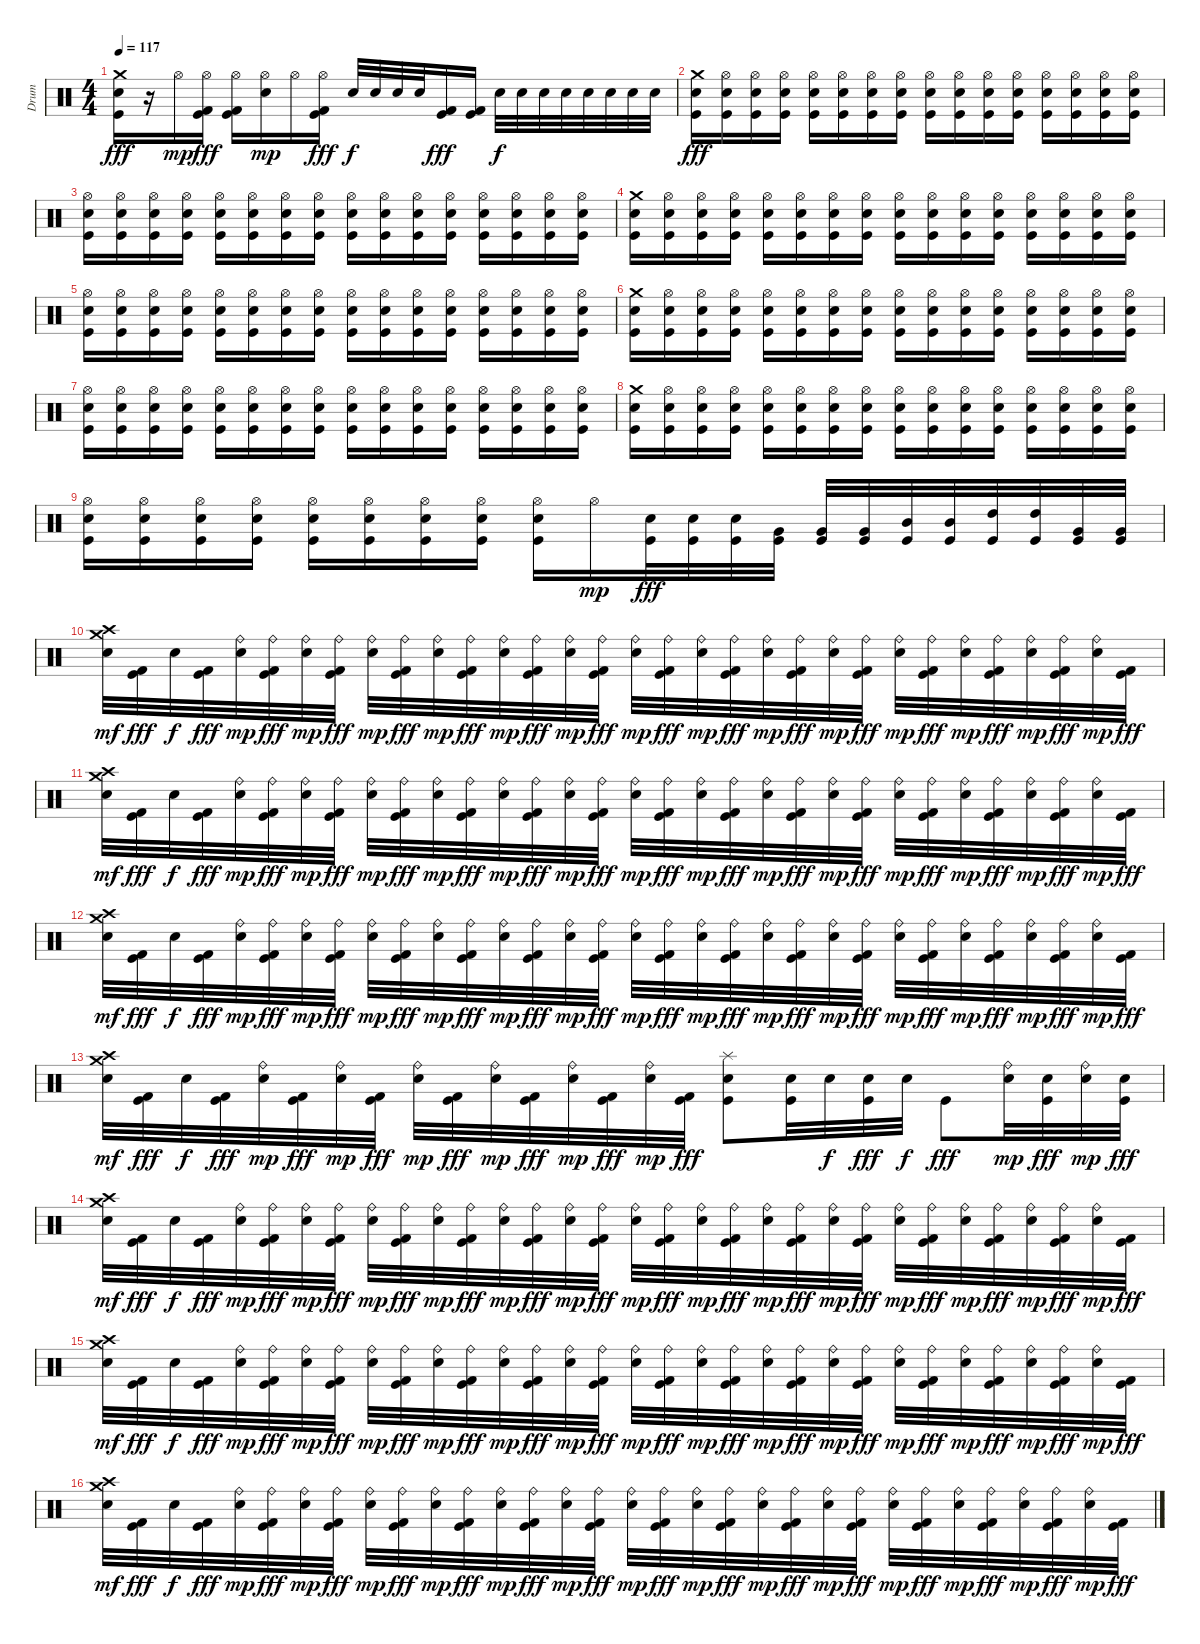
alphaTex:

\track ("Drum" "Drum") {instrument percussion}
\staff {score}
\articulation defaults
\ts (4 4)
\tempo 117
\clef neutral
\ks c
("Crash medium (hit)" "Electric Snare (hit)" "Kick (hit)").16{dy fff} r.16 "Hi-Hat (open)".16{dy mp} ("Hi-Hat (open)" "Kick (hit) 2" "Kick (hit)").16{dy fff} ("Hi-Hat (open)" "Kick (hit) 2" "Kick (hit)").16 ("Hi-Hat (open)" "Electric Snare (hit)").16{dy mp} "Hi-Hat (open)".16 ("Hi-Hat (open)" "Kick (hit) 2" "Kick (hit)").16{dy fff} "Electric Snare (hit)".32{dy f} "Electric Snare (hit)".32 "Electric Snare (hit)".32 "Electric Snare (hit)".32 ("Kick (hit) 2" "Kick (hit)").16{dy fff} ("Kick (hit) 2" "Kick (hit)").16 "Electric Snare (hit)".32{dy f} "Electric Snare (hit)".32 "Electric Snare (hit)".32 "Electric Snare (hit)".32 "Electric Snare (hit)".32 "Electric Snare (hit)".32 "Electric Snare (hit)".32 "Electric Snare (hit)".32 |
("Crash medium (hit)" "Electric Snare (hit)" "Kick (hit)").16{dy fff} ("Hi-Hat (open)" "Electric Snare (hit)" "Kick (hit)").16 ("Hi-Hat (open)" "Electric Snare (hit)" "Kick (hit)").16 ("Hi-Hat (open)" "Electric Snare (hit)" "Kick (hit)").16 ("Hi-Hat (open)" "Electric Snare (hit)" "Kick (hit)").16 ("Hi-Hat (open)" "Electric Snare (hit)" "Kick (hit)").16 ("Hi-Hat (open)" "Electric Snare (hit)" "Kick (hit)").16 ("Hi-Hat (open)" "Electric Snare (hit)" "Kick (hit)").16 ("Hi-Hat (open)" "Electric Snare (hit)" "Kick (hit)").16 ("Hi-Hat (open)" "Electric Snare (hit)" "Kick (hit)").16 ("Hi-Hat (open)" "Electric Snare (hit)" "Kick (hit)").16 ("Hi-Hat (open)" "Electric Snare (hit)" "Kick (hit)").16 ("Hi-Hat (open)" "Electric Snare (hit)" "Kick (hit)").16 ("Hi-Hat (open)" "Electric Snare (hit)" "Kick (hit)").16 ("Hi-Hat (open)" "Electric Snare (hit)" "Kick (hit)").16 ("Hi-Hat (open)" "Electric Snare (hit)" "Kick (hit)").16 |
("Hi-Hat (open)" "Electric Snare (hit)" "Kick (hit)").16 ("Hi-Hat (open)" "Electric Snare (hit)" "Kick (hit)").16 ("Hi-Hat (open)" "Electric Snare (hit)" "Kick (hit)").16 ("Hi-Hat (open)" "Electric Snare (hit)" "Kick (hit)").16 ("Hi-Hat (open)" "Electric Snare (hit)" "Kick (hit)").16 ("Hi-Hat (open)" "Electric Snare (hit)" "Kick (hit)").16 ("Hi-Hat (open)" "Electric Snare (hit)" "Kick (hit)").16 ("Hi-Hat (open)" "Electric Snare (hit)" "Kick (hit)").16 ("Hi-Hat (open)" "Electric Snare (hit)" "Kick (hit)").16 ("Hi-Hat (open)" "Electric Snare (hit)" "Kick (hit)").16 ("Hi-Hat (open)" "Electric Snare (hit)" "Kick (hit)").16 ("Hi-Hat (open)" "Electric Snare (hit)" "Kick (hit)").16 ("Hi-Hat (open)" "Electric Snare (hit)" "Kick (hit)").16 ("Hi-Hat (open)" "Electric Snare (hit)" "Kick (hit)").16 ("Hi-Hat (open)" "Electric Snare (hit)" "Kick (hit)").16 ("Hi-Hat (open)" "Electric Snare (hit)" "Kick (hit)").16 |
("Crash medium (hit)" "Electric Snare (hit)" "Kick (hit)").16 ("Hi-Hat (open)" "Electric Snare (hit)" "Kick (hit)").16 ("Hi-Hat (open)" "Electric Snare (hit)" "Kick (hit)").16 ("Hi-Hat (open)" "Electric Snare (hit)" "Kick (hit)").16 ("Hi-Hat (open)" "Electric Snare (hit)" "Kick (hit)").16 ("Hi-Hat (open)" "Electric Snare (hit)" "Kick (hit)").16 ("Hi-Hat (open)" "Electric Snare (hit)" "Kick (hit)").16 ("Hi-Hat (open)" "Electric Snare (hit)" "Kick (hit)").16 ("Hi-Hat (open)" "Electric Snare (hit)" "Kick (hit)").16 ("Hi-Hat (open)" "Electric Snare (hit)" "Kick (hit)").16 ("Hi-Hat (open)" "Electric Snare (hit)" "Kick (hit)").16 ("Hi-Hat (open)" "Electric Snare (hit)" "Kick (hit)").16 ("Hi-Hat (open)" "Electric Snare (hit)" "Kick (hit)").16 ("Hi-Hat (open)" "Electric Snare (hit)" "Kick (hit)").16 ("Hi-Hat (open)" "Electric Snare (hit)" "Kick (hit)").16 ("Hi-Hat (open)" "Electric Snare (hit)" "Kick (hit)").16 |
("Hi-Hat (open)" "Electric Snare (hit)" "Kick (hit)").16 ("Hi-Hat (open)" "Electric Snare (hit)" "Kick (hit)").16 ("Hi-Hat (open)" "Electric Snare (hit)" "Kick (hit)").16 ("Hi-Hat (open)" "Electric Snare (hit)" "Kick (hit)").16 ("Hi-Hat (open)" "Electric Snare (hit)" "Kick (hit)").16 ("Hi-Hat (open)" "Electric Snare (hit)" "Kick (hit)").16 ("Hi-Hat (open)" "Electric Snare (hit)" "Kick (hit)").16 ("Hi-Hat (open)" "Electric Snare (hit)" "Kick (hit)").16 ("Hi-Hat (open)" "Electric Snare (hit)" "Kick (hit)").16 ("Hi-Hat (open)" "Electric Snare (hit)" "Kick (hit)").16 ("Hi-Hat (open)" "Electric Snare (hit)" "Kick (hit)").16 ("Hi-Hat (open)" "Electric Snare (hit)" "Kick (hit)").16 ("Hi-Hat (open)" "Electric Snare (hit)" "Kick (hit)").16 ("Hi-Hat (open)" "Electric Snare (hit)" "Kick (hit)").16 ("Hi-Hat (open)" "Electric Snare (hit)" "Kick (hit)").16 ("Hi-Hat (open)" "Electric Snare (hit)" "Kick (hit)").16 |
("Crash medium (hit)" "Electric Snare (hit)" "Kick (hit)").16 ("Hi-Hat (open)" "Electric Snare (hit)" "Kick (hit)").16 ("Hi-Hat (open)" "Electric Snare (hit)" "Kick (hit)").16 ("Hi-Hat (open)" "Electric Snare (hit)" "Kick (hit)").16 ("Hi-Hat (open)" "Electric Snare (hit)" "Kick (hit)").16 ("Hi-Hat (open)" "Electric Snare (hit)" "Kick (hit)").16 ("Hi-Hat (open)" "Electric Snare (hit)" "Kick (hit)").16 ("Hi-Hat (open)" "Electric Snare (hit)" "Kick (hit)").16 ("Hi-Hat (open)" "Electric Snare (hit)" "Kick (hit)").16 ("Hi-Hat (open)" "Electric Snare (hit)" "Kick (hit)").16 ("Hi-Hat (open)" "Electric Snare (hit)" "Kick (hit)").16 ("Hi-Hat (open)" "Electric Snare (hit)" "Kick (hit)").16 ("Hi-Hat (open)" "Electric Snare (hit)" "Kick (hit)").16 ("Hi-Hat (open)" "Electric Snare (hit)" "Kick (hit)").16 ("Hi-Hat (open)" "Electric Snare (hit)" "Kick (hit)").16 ("Hi-Hat (open)" "Electric Snare (hit)" "Kick (hit)").16 |
("Hi-Hat (open)" "Electric Snare (hit)" "Kick (hit)").16 ("Hi-Hat (open)" "Electric Snare (hit)" "Kick (hit)").16 ("Hi-Hat (open)" "Electric Snare (hit)" "Kick (hit)").16 ("Hi-Hat (open)" "Electric Snare (hit)" "Kick (hit)").16 ("Hi-Hat (open)" "Electric Snare (hit)" "Kick (hit)").16 ("Hi-Hat (open)" "Electric Snare (hit)" "Kick (hit)").16 ("Hi-Hat (open)" "Electric Snare (hit)" "Kick (hit)").16 ("Hi-Hat (open)" "Electric Snare (hit)" "Kick (hit)").16 ("Hi-Hat (open)" "Electric Snare (hit)" "Kick (hit)").16 ("Hi-Hat (open)" "Electric Snare (hit)" "Kick (hit)").16 ("Hi-Hat (open)" "Electric Snare (hit)" "Kick (hit)").16 ("Hi-Hat (open)" "Electric Snare (hit)" "Kick (hit)").16 ("Hi-Hat (open)" "Electric Snare (hit)" "Kick (hit)").16 ("Hi-Hat (open)" "Electric Snare (hit)" "Kick (hit)").16 ("Hi-Hat (open)" "Electric Snare (hit)" "Kick (hit)").16 ("Hi-Hat (open)" "Electric Snare (hit)" "Kick (hit)").16 |
("Crash medium (hit)" "Electric Snare (hit)" "Kick (hit)").16 ("Hi-Hat (open)" "Electric Snare (hit)" "Kick (hit)").16 ("Hi-Hat (open)" "Electric Snare (hit)" "Kick (hit)").16 ("Hi-Hat (open)" "Electric Snare (hit)" "Kick (hit)").16 ("Hi-Hat (open)" "Electric Snare (hit)" "Kick (hit)").16 ("Hi-Hat (open)" "Electric Snare (hit)" "Kick (hit)").16 ("Hi-Hat (open)" "Electric Snare (hit)" "Kick (hit)").16 ("Hi-Hat (open)" "Electric Snare (hit)" "Kick (hit)").16 ("Hi-Hat (open)" "Electric Snare (hit)" "Kick (hit)").16 ("Hi-Hat (open)" "Electric Snare (hit)" "Kick (hit)").16 ("Hi-Hat (open)" "Electric Snare (hit)" "Kick (hit)").16 ("Hi-Hat (open)" "Electric Snare (hit)" "Kick (hit)").16 ("Hi-Hat (open)" "Electric Snare (hit)" "Kick (hit)").16 ("Hi-Hat (open)" "Electric Snare (hit)" "Kick (hit)").16 ("Hi-Hat (open)" "Electric Snare (hit)" "Kick (hit)").16 ("Hi-Hat (open)" "Electric Snare (hit)" "Kick (hit)").16 |
("Hi-Hat (open)" "Electric Snare (hit)" "Kick (hit)").16 ("Hi-Hat (open)" "Electric Snare (hit)" "Kick (hit)").16 ("Hi-Hat (open)" "Electric Snare (hit)" "Kick (hit)").16 ("Hi-Hat (open)" "Electric Snare (hit)" "Kick (hit)").16 ("Hi-Hat (open)" "Electric Snare (hit)" "Kick (hit)").16 ("Hi-Hat (open)" "Electric Snare (hit)" "Kick (hit)").16 ("Hi-Hat (open)" "Electric Snare (hit)" "Kick (hit)").16 ("Hi-Hat (open)" "Electric Snare (hit)" "Kick (hit)").16 ("Hi-Hat (open)" "Electric Snare (hit)" "Kick (hit)").16 "Hi-Hat (open)".16{dy mp} ("Electric Snare (hit)" "Kick (hit)").32{dy fff} ("Electric Snare (hit)" "Kick (hit)").32 ("Electric Snare (hit)" "Kick (hit)").32 ("Very Low Tom (hit)" "Kick (hit)").32 ("Very Low Tom (hit)" "Kick (hit)").32 ("Very Low Tom (hit)" "Kick (hit)").32 ("Mid Tom (hit)" "Kick (hit)").32 ("Mid Tom (hit)" "Kick (hit)").32 ("High Tom (hit)" "Kick (hit)").32 ("High Tom (hit)" "Kick (hit)").32 ("Very Low Tom (hit)" "Kick (hit)").32 ("Very Low Tom (hit)" "Kick (hit)").32 |
("Crash medium (hit)" "Crash high (hit)" "Electric Snare (hit)").32{dy mf} ("Kick (hit) 2" "Kick (hit)").32{dy fff} "Electric Snare (hit)".32{dy f} ("Kick (hit) 2" "Kick (hit)").32{dy fff} ("Ride (bell)" "Electric Snare (hit)").32{dy mp} ("Ride (bell)" "Kick (hit) 2" "Kick (hit)").32{dy fff} ("Ride (bell)" "Electric Snare (hit)").32{dy mp} ("Ride (bell)" "Kick (hit) 2" "Kick (hit)").32{dy fff} ("Ride (bell)" "Electric Snare (hit)").32{dy mp} ("Ride (bell)" "Kick (hit) 2" "Kick (hit)").32{dy fff} ("Ride (bell)" "Electric Snare (hit)").32{dy mp} ("Ride (bell)" "Kick (hit) 2" "Kick (hit)").32{dy fff} ("Ride (bell)" "Electric Snare (hit)").32{dy mp} ("Ride (bell)" "Kick (hit) 2" "Kick (hit)").32{dy fff} ("Ride (bell)" "Electric Snare (hit)").32{dy mp} ("Ride (bell)" "Kick (hit) 2" "Kick (hit)").32{dy fff} ("Ride (bell)" "Electric Snare (hit)").32{dy mp} ("Ride (bell)" "Kick (hit) 2" "Kick (hit)").32{dy fff} ("Ride (bell)" "Electric Snare (hit)").32{dy mp} ("Ride (bell)" "Kick (hit) 2" "Kick (hit)").32{dy fff} ("Ride (bell)" "Electric Snare (hit)").32{dy mp} ("Ride (bell)" "Kick (hit) 2" "Kick (hit)").32{dy fff} ("Ride (bell)" "Electric Snare (hit)").32{dy mp} ("Ride (bell)" "Kick (hit) 2" "Kick (hit)").32{dy fff} ("Ride (bell)" "Electric Snare (hit)").32{dy mp} ("Ride (bell)" "Kick (hit) 2" "Kick (hit)").32{dy fff} ("Ride (bell)" "Electric Snare (hit)").32{dy mp} ("Ride (bell)" "Kick (hit) 2" "Kick (hit)").32{dy fff} ("Ride (bell)" "Electric Snare (hit)").32{dy mp} ("Ride (bell)" "Kick (hit) 2" "Kick (hit)").32{dy fff} ("Ride (bell)" "Electric Snare (hit)").32{dy mp} ("Kick (hit) 2" "Kick (hit)").32{dy fff} |
("Crash medium (hit)" "Crash high (hit)" "Electric Snare (hit)").32{dy mf} ("Kick (hit) 2" "Kick (hit)").32{dy fff} "Electric Snare (hit)".32{dy f} ("Kick (hit) 2" "Kick (hit)").32{dy fff} ("Ride (bell)" "Electric Snare (hit)").32{dy mp} ("Ride (bell)" "Kick (hit) 2" "Kick (hit)").32{dy fff} ("Ride (bell)" "Electric Snare (hit)").32{dy mp} ("Ride (bell)" "Kick (hit) 2" "Kick (hit)").32{dy fff} ("Ride (bell)" "Electric Snare (hit)").32{dy mp} ("Ride (bell)" "Kick (hit) 2" "Kick (hit)").32{dy fff} ("Ride (bell)" "Electric Snare (hit)").32{dy mp} ("Ride (bell)" "Kick (hit) 2" "Kick (hit)").32{dy fff} ("Ride (bell)" "Electric Snare (hit)").32{dy mp} ("Ride (bell)" "Kick (hit) 2" "Kick (hit)").32{dy fff} ("Ride (bell)" "Electric Snare (hit)").32{dy mp} ("Ride (bell)" "Kick (hit) 2" "Kick (hit)").32{dy fff} ("Ride (bell)" "Electric Snare (hit)").32{dy mp} ("Ride (bell)" "Kick (hit) 2" "Kick (hit)").32{dy fff} ("Ride (bell)" "Electric Snare (hit)").32{dy mp} ("Ride (bell)" "Kick (hit) 2" "Kick (hit)").32{dy fff} ("Ride (bell)" "Electric Snare (hit)").32{dy mp} ("Ride (bell)" "Kick (hit) 2" "Kick (hit)").32{dy fff} ("Ride (bell)" "Electric Snare (hit)").32{dy mp} ("Ride (bell)" "Kick (hit) 2" "Kick (hit)").32{dy fff} ("Ride (bell)" "Electric Snare (hit)").32{dy mp} ("Ride (bell)" "Kick (hit) 2" "Kick (hit)").32{dy fff} ("Ride (bell)" "Electric Snare (hit)").32{dy mp} ("Ride (bell)" "Kick (hit) 2" "Kick (hit)").32{dy fff} ("Ride (bell)" "Electric Snare (hit)").32{dy mp} ("Ride (bell)" "Kick (hit) 2" "Kick (hit)").32{dy fff} ("Ride (bell)" "Electric Snare (hit)").32{dy mp} ("Kick (hit) 2" "Kick (hit)").32{dy fff} |
("Crash medium (hit)" "Crash high (hit)" "Electric Snare (hit)").32{dy mf} ("Kick (hit) 2" "Kick (hit)").32{dy fff} "Electric Snare (hit)".32{dy f} ("Kick (hit) 2" "Kick (hit)").32{dy fff} ("Ride (bell)" "Electric Snare (hit)").32{dy mp} ("Ride (bell)" "Kick (hit) 2" "Kick (hit)").32{dy fff} ("Ride (bell)" "Electric Snare (hit)").32{dy mp} ("Ride (bell)" "Kick (hit) 2" "Kick (hit)").32{dy fff} ("Ride (bell)" "Electric Snare (hit)").32{dy mp} ("Ride (bell)" "Kick (hit) 2" "Kick (hit)").32{dy fff} ("Ride (bell)" "Electric Snare (hit)").32{dy mp} ("Ride (bell)" "Kick (hit) 2" "Kick (hit)").32{dy fff} ("Ride (bell)" "Electric Snare (hit)").32{dy mp} ("Ride (bell)" "Kick (hit) 2" "Kick (hit)").32{dy fff} ("Ride (bell)" "Electric Snare (hit)").32{dy mp} ("Ride (bell)" "Kick (hit) 2" "Kick (hit)").32{dy fff} ("Ride (bell)" "Electric Snare (hit)").32{dy mp} ("Ride (bell)" "Kick (hit) 2" "Kick (hit)").32{dy fff} ("Ride (bell)" "Electric Snare (hit)").32{dy mp} ("Ride (bell)" "Kick (hit) 2" "Kick (hit)").32{dy fff} ("Ride (bell)" "Electric Snare (hit)").32{dy mp} ("Ride (bell)" "Kick (hit) 2" "Kick (hit)").32{dy fff} ("Ride (bell)" "Electric Snare (hit)").32{dy mp} ("Ride (bell)" "Kick (hit) 2" "Kick (hit)").32{dy fff} ("Ride (bell)" "Electric Snare (hit)").32{dy mp} ("Ride (bell)" "Kick (hit) 2" "Kick (hit)").32{dy fff} ("Ride (bell)" "Electric Snare (hit)").32{dy mp} ("Ride (bell)" "Kick (hit) 2" "Kick (hit)").32{dy fff} ("Ride (bell)" "Electric Snare (hit)").32{dy mp} ("Ride (bell)" "Kick (hit) 2" "Kick (hit)").32{dy fff} ("Ride (bell)" "Electric Snare (hit)").32{dy mp} ("Kick (hit) 2" "Kick (hit)").32{dy fff} |
("Crash medium (hit)" "Crash high (hit)" "Electric Snare (hit)").32{dy mf} ("Kick (hit) 2" "Kick (hit)").32{dy fff} "Electric Snare (hit)".32{dy f} ("Kick (hit) 2" "Kick (hit)").32{dy fff} ("Ride (bell)" "Electric Snare (hit)").32{dy mp} ("Kick (hit) 2" "Kick (hit)").32{dy fff} ("Ride (bell)" "Electric Snare (hit)").32{dy mp} ("Kick (hit) 2" "Kick (hit)").32{dy fff} ("Ride (bell)" "Electric Snare (hit)").32{dy mp} ("Kick (hit) 2" "Kick (hit)").32{dy fff} ("Ride (bell)" "Electric Snare (hit)").32{dy mp} ("Kick (hit) 2" "Kick (hit)").32{dy fff} ("Ride (bell)" "Electric Snare (hit)").32{dy mp} ("Kick (hit) 2" "Kick (hit)").32{dy fff} ("Ride (bell)" "Electric Snare (hit)").32{dy mp} ("Kick (hit) 2" "Kick (hit)").32{dy fff} ("Splash (hit)" "Electric Snare (hit)" "Kick (hit)").8 ("Electric Snare (hit)" "Kick (hit)").32 "Electric Snare (hit)".32{dy f} ("Electric Snare (hit)" "Kick (hit)").32{dy fff} "Electric Snare (hit)".32{dy f} "Kick (hit)".8{dy fff} ("Ride (bell)" "Electric Snare (hit)").32{dy mp} ("Electric Snare (hit)" "Kick (hit)").32{dy fff} ("Ride (bell)" "Electric Snare (hit)").32{dy mp} ("Electric Snare (hit)" "Kick (hit)").32{dy fff} |
("Crash medium (hit)" "Crash high (hit)" "Electric Snare (hit)").32{dy mf} ("Kick (hit) 2" "Kick (hit)").32{dy fff} "Electric Snare (hit)".32{dy f} ("Kick (hit) 2" "Kick (hit)").32{dy fff} ("Ride (bell)" "Electric Snare (hit)").32{dy mp} ("Ride (bell)" "Kick (hit) 2" "Kick (hit)").32{dy fff} ("Ride (bell)" "Electric Snare (hit)").32{dy mp} ("Ride (bell)" "Kick (hit) 2" "Kick (hit)").32{dy fff} ("Ride (bell)" "Electric Snare (hit)").32{dy mp} ("Ride (bell)" "Kick (hit) 2" "Kick (hit)").32{dy fff} ("Ride (bell)" "Electric Snare (hit)").32{dy mp} ("Ride (bell)" "Kick (hit) 2" "Kick (hit)").32{dy fff} ("Ride (bell)" "Electric Snare (hit)").32{dy mp} ("Ride (bell)" "Kick (hit) 2" "Kick (hit)").32{dy fff} ("Ride (bell)" "Electric Snare (hit)").32{dy mp} ("Ride (bell)" "Kick (hit) 2" "Kick (hit)").32{dy fff} ("Ride (bell)" "Electric Snare (hit)").32{dy mp} ("Ride (bell)" "Kick (hit) 2" "Kick (hit)").32{dy fff} ("Ride (bell)" "Electric Snare (hit)").32{dy mp} ("Ride (bell)" "Kick (hit) 2" "Kick (hit)").32{dy fff} ("Ride (bell)" "Electric Snare (hit)").32{dy mp} ("Ride (bell)" "Kick (hit) 2" "Kick (hit)").32{dy fff} ("Ride (bell)" "Electric Snare (hit)").32{dy mp} ("Ride (bell)" "Kick (hit) 2" "Kick (hit)").32{dy fff} ("Ride (bell)" "Electric Snare (hit)").32{dy mp} ("Ride (bell)" "Kick (hit) 2" "Kick (hit)").32{dy fff} ("Ride (bell)" "Electric Snare (hit)").32{dy mp} ("Ride (bell)" "Kick (hit) 2" "Kick (hit)").32{dy fff} ("Ride (bell)" "Electric Snare (hit)").32{dy mp} ("Ride (bell)" "Kick (hit) 2" "Kick (hit)").32{dy fff} ("Ride (bell)" "Electric Snare (hit)").32{dy mp} ("Kick (hit) 2" "Kick (hit)").32{dy fff} |
("Crash medium (hit)" "Crash high (hit)" "Electric Snare (hit)").32{dy mf} ("Kick (hit) 2" "Kick (hit)").32{dy fff} "Electric Snare (hit)".32{dy f} ("Kick (hit) 2" "Kick (hit)").32{dy fff} ("Ride (bell)" "Electric Snare (hit)").32{dy mp} ("Ride (bell)" "Kick (hit) 2" "Kick (hit)").32{dy fff} ("Ride (bell)" "Electric Snare (hit)").32{dy mp} ("Ride (bell)" "Kick (hit) 2" "Kick (hit)").32{dy fff} ("Ride (bell)" "Electric Snare (hit)").32{dy mp} ("Ride (bell)" "Kick (hit) 2" "Kick (hit)").32{dy fff} ("Ride (bell)" "Electric Snare (hit)").32{dy mp} ("Ride (bell)" "Kick (hit) 2" "Kick (hit)").32{dy fff} ("Ride (bell)" "Electric Snare (hit)").32{dy mp} ("Ride (bell)" "Kick (hit) 2" "Kick (hit)").32{dy fff} ("Ride (bell)" "Electric Snare (hit)").32{dy mp} ("Ride (bell)" "Kick (hit) 2" "Kick (hit)").32{dy fff} ("Ride (bell)" "Electric Snare (hit)").32{dy mp} ("Ride (bell)" "Kick (hit) 2" "Kick (hit)").32{dy fff} ("Ride (bell)" "Electric Snare (hit)").32{dy mp} ("Ride (bell)" "Kick (hit) 2" "Kick (hit)").32{dy fff} ("Ride (bell)" "Electric Snare (hit)").32{dy mp} ("Ride (bell)" "Kick (hit) 2" "Kick (hit)").32{dy fff} ("Ride (bell)" "Electric Snare (hit)").32{dy mp} ("Ride (bell)" "Kick (hit) 2" "Kick (hit)").32{dy fff} ("Ride (bell)" "Electric Snare (hit)").32{dy mp} ("Ride (bell)" "Kick (hit) 2" "Kick (hit)").32{dy fff} ("Ride (bell)" "Electric Snare (hit)").32{dy mp} ("Ride (bell)" "Kick (hit) 2" "Kick (hit)").32{dy fff} ("Ride (bell)" "Electric Snare (hit)").32{dy mp} ("Ride (bell)" "Kick (hit) 2" "Kick (hit)").32{dy fff} ("Ride (bell)" "Electric Snare (hit)").32{dy mp} ("Kick (hit) 2" "Kick (hit)").32{dy fff} |
("Crash medium (hit)" "Crash high (hit)" "Electric Snare (hit)").32{dy mf} ("Kick (hit) 2" "Kick (hit)").32{dy fff} "Electric Snare (hit)".32{dy f} ("Kick (hit) 2" "Kick (hit)").32{dy fff} ("Ride (bell)" "Electric Snare (hit)").32{dy mp} ("Ride (bell)" "Kick (hit) 2" "Kick (hit)").32{dy fff} ("Ride (bell)" "Electric Snare (hit)").32{dy mp} ("Ride (bell)" "Kick (hit) 2" "Kick (hit)").32{dy fff} ("Ride (bell)" "Electric Snare (hit)").32{dy mp} ("Ride (bell)" "Kick (hit) 2" "Kick (hit)").32{dy fff} ("Ride (bell)" "Electric Snare (hit)").32{dy mp} ("Ride (bell)" "Kick (hit) 2" "Kick (hit)").32{dy fff} ("Ride (bell)" "Electric Snare (hit)").32{dy mp} ("Ride (bell)" "Kick (hit) 2" "Kick (hit)").32{dy fff} ("Ride (bell)" "Electric Snare (hit)").32{dy mp} ("Ride (bell)" "Kick (hit) 2" "Kick (hit)").32{dy fff} ("Ride (bell)" "Electric Snare (hit)").32{dy mp} ("Ride (bell)" "Kick (hit) 2" "Kick (hit)").32{dy fff} ("Ride (bell)" "Electric Snare (hit)").32{dy mp} ("Ride (bell)" "Kick (hit) 2" "Kick (hit)").32{dy fff} ("Ride (bell)" "Electric Snare (hit)").32{dy mp} ("Ride (bell)" "Kick (hit) 2" "Kick (hit)").32{dy fff} ("Ride (bell)" "Electric Snare (hit)").32{dy mp} ("Ride (bell)" "Kick (hit) 2" "Kick (hit)").32{dy fff} ("Ride (bell)" "Electric Snare (hit)").32{dy mp} ("Ride (bell)" "Kick (hit) 2" "Kick (hit)").32{dy fff} ("Ride (bell)" "Electric Snare (hit)").32{dy mp} ("Ride (bell)" "Kick (hit) 2" "Kick (hit)").32{dy fff} ("Ride (bell)" "Electric Snare (hit)").32{dy mp} ("Ride (bell)" "Kick (hit) 2" "Kick (hit)").32{dy fff} ("Ride (bell)" "Electric Snare (hit)").32{dy mp} ("Kick (hit) 2" "Kick (hit)").32{dy fff}
